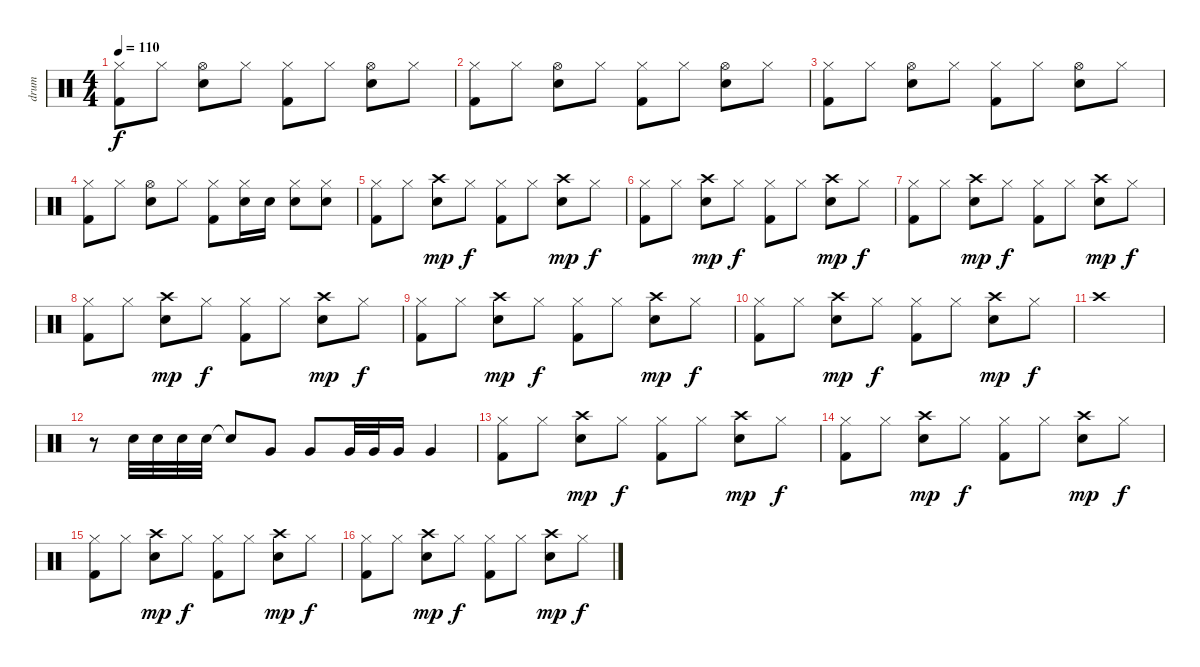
\track ("drum" "drum") {instrument percussion}
\staff {score}
\articulation defaults
\ts (4 4)
\tempo 110
\clef neutral
\ks c
("Hi-Hat (closed)" "Kick (hit) 2").8{dy f} "Hi-Hat (closed)".8 ("Hi-Hat (open)" "Electric Snare (hit)").8 "Hi-Hat (closed)".8 ("Hi-Hat (closed)" "Kick (hit) 2").8 "Hi-Hat (closed)".8 ("Hi-Hat (open)" "Electric Snare (hit)").8 "Hi-Hat (closed)".8 |
("Hi-Hat (closed)" "Kick (hit) 2").8 "Hi-Hat (closed)".8 ("Hi-Hat (open)" "Electric Snare (hit)").8 "Hi-Hat (closed)".8 ("Hi-Hat (closed)" "Kick (hit) 2").8 "Hi-Hat (closed)".8 ("Hi-Hat (open)" "Electric Snare (hit)").8 "Hi-Hat (closed)".8 |
("Hi-Hat (closed)" "Kick (hit) 2").8 "Hi-Hat (closed)".8 ("Hi-Hat (open)" "Electric Snare (hit)").8 "Hi-Hat (closed)".8 ("Hi-Hat (closed)" "Kick (hit) 2").8 "Hi-Hat (closed)".8 ("Hi-Hat (open)" "Electric Snare (hit)").8 "Hi-Hat (closed)".8 |
("Hi-Hat (closed)" "Kick (hit) 2").8 "Hi-Hat (closed)".8 ("Hi-Hat (open)" "Electric Snare (hit)").8 "Hi-Hat (closed)".8 ("Hi-Hat (closed)" "Kick (hit) 2").8 ("Hi-Hat (closed)" "Electric Snare (hit)").16 "Electric Snare (hit)".16 ("Hi-Hat (closed)" "Electric Snare (hit)").8 ("Hi-Hat (closed)" "Electric Snare (hit)").8 |
("Hi-Hat (closed)" "Kick (hit) 2").8 "Hi-Hat (closed)".8 ("Crash high (hit)" "Electric Snare (hit)").8{dy mp} "Hi-Hat (closed)".8{dy f} ("Hi-Hat (closed)" "Kick (hit) 2").8 "Hi-Hat (closed)".8 ("Crash high (hit)" "Electric Snare (hit)").8{dy mp} "Hi-Hat (closed)".8{dy f} |
("Hi-Hat (closed)" "Kick (hit) 2").8 "Hi-Hat (closed)".8 ("Crash high (hit)" "Electric Snare (hit)").8{dy mp} "Hi-Hat (closed)".8{dy f} ("Hi-Hat (closed)" "Kick (hit) 2").8 "Hi-Hat (closed)".8 ("Crash high (hit)" "Electric Snare (hit)").8{dy mp} "Hi-Hat (closed)".8{dy f} |
("Hi-Hat (closed)" "Kick (hit) 2").8 "Hi-Hat (closed)".8 ("Crash high (hit)" "Electric Snare (hit)").8{dy mp} "Hi-Hat (closed)".8{dy f} ("Hi-Hat (closed)" "Kick (hit) 2").8 "Hi-Hat (closed)".8 ("Crash high (hit)" "Electric Snare (hit)").8{dy mp} "Hi-Hat (closed)".8{dy f} |
("Hi-Hat (closed)" "Kick (hit) 2").8 "Hi-Hat (closed)".8 ("Crash high (hit)" "Electric Snare (hit)").8{dy mp} "Hi-Hat (closed)".8{dy f} ("Hi-Hat (closed)" "Kick (hit) 2").8 "Hi-Hat (closed)".8 ("Crash high (hit)" "Electric Snare (hit)").8{dy mp} "Hi-Hat (closed)".8{dy f} |
("Hi-Hat (closed)" "Kick (hit) 2").8 "Hi-Hat (closed)".8 ("Crash high (hit)" "Electric Snare (hit)").8{dy mp} "Hi-Hat (closed)".8{dy f} ("Hi-Hat (closed)" "Kick (hit) 2").8 "Hi-Hat (closed)".8 ("Crash high (hit)" "Electric Snare (hit)").8{dy mp} "Hi-Hat (closed)".8{dy f} |
("Hi-Hat (closed)" "Kick (hit) 2").8 "Hi-Hat (closed)".8 ("Crash high (hit)" "Electric Snare (hit)").8{dy mp} "Hi-Hat (closed)".8{dy f} ("Hi-Hat (closed)" "Kick (hit) 2").8 "Hi-Hat (closed)".8 ("Crash high (hit)" "Electric Snare (hit)").8{dy mp} "Hi-Hat (closed)".8{dy f} |
"Crash high (hit)".1 |
r.8 "Electric Snare (hit)".32 "Electric Snare (hit)".32 "Electric Snare (hit)".32 "Electric Snare (hit)".32 "Snare (hit)"{t}.8 "Very Low Tom (hit)".8 "Very Low Tom (hit)".8 "Very Low Tom (hit)".32 "Very Low Tom (hit)".32 "Very Low Tom (hit)".16 "Very Low Tom (hit)".4 |
("Hi-Hat (closed)" "Kick (hit) 2").8 "Hi-Hat (closed)".8 ("Crash high (hit)" "Electric Snare (hit)").8{dy mp} "Hi-Hat (closed)".8{dy f} ("Hi-Hat (closed)" "Kick (hit) 2").8 "Hi-Hat (closed)".8 ("Crash high (hit)" "Electric Snare (hit)").8{dy mp} "Hi-Hat (closed)".8{dy f} |
("Hi-Hat (closed)" "Kick (hit) 2").8 "Hi-Hat (closed)".8 ("Crash high (hit)" "Electric Snare (hit)").8{dy mp} "Hi-Hat (closed)".8{dy f} ("Hi-Hat (closed)" "Kick (hit) 2").8 "Hi-Hat (closed)".8 ("Crash high (hit)" "Electric Snare (hit)").8{dy mp} "Hi-Hat (closed)".8{dy f} |
("Hi-Hat (closed)" "Kick (hit) 2").8 "Hi-Hat (closed)".8 ("Crash high (hit)" "Electric Snare (hit)").8{dy mp} "Hi-Hat (closed)".8{dy f} ("Hi-Hat (closed)" "Kick (hit) 2").8 "Hi-Hat (closed)".8 ("Crash high (hit)" "Electric Snare (hit)").8{dy mp} "Hi-Hat (closed)".8{dy f} |
("Hi-Hat (closed)" "Kick (hit) 2").8 "Hi-Hat (closed)".8 ("Crash high (hit)" "Electric Snare (hit)").8{dy mp} "Hi-Hat (closed)".8{dy f} ("Hi-Hat (closed)" "Kick (hit) 2").8 "Hi-Hat (closed)".8 ("Crash high (hit)" "Electric Snare (hit)").8{dy mp} "Hi-Hat (closed)".8{dy f}
